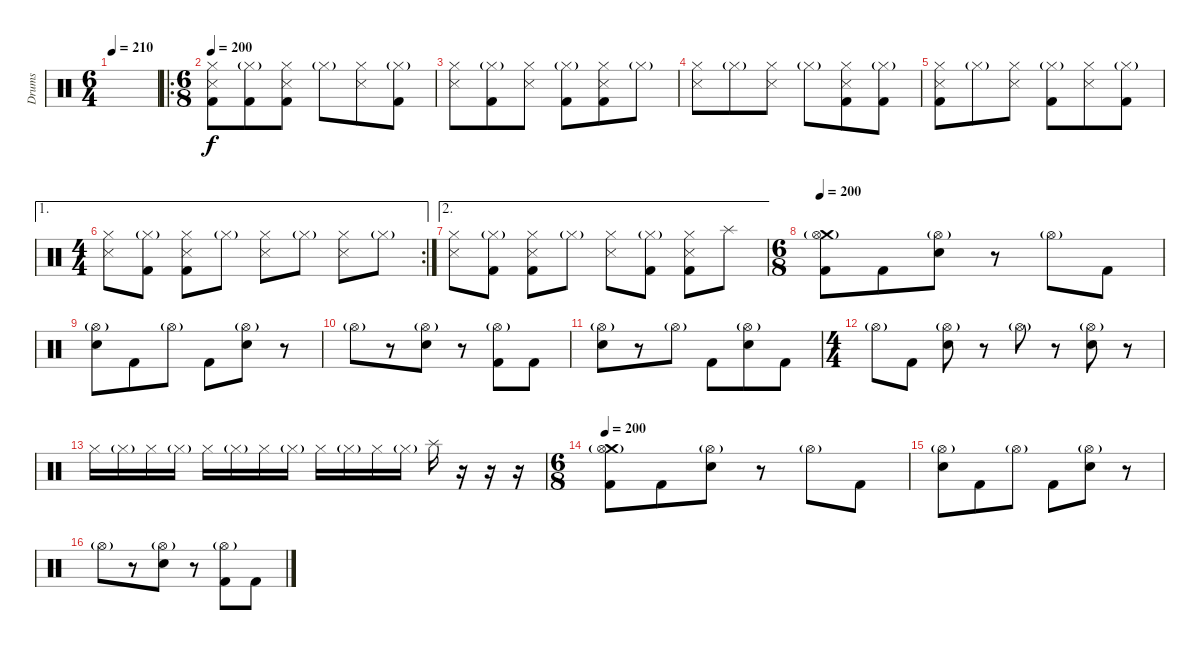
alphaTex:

\track ("Drums" "Drums") {instrument percussion}
\staff {score}
\articulation defaults
\ts (6 4)
\tempo 210
\clef neutral
\ks c
|
\ro
\ts (6 8)
\tempo 200
("Hi-Hat (closed)" "Snare (side stick) 3" "Kick (hit) 2").8 ("Hi-Hat (closed)"{g} "Kick (hit) 2").8 ("Hi-Hat (closed)" "Snare (side stick) 3" "Kick (hit) 2").8 "Hi-Hat (closed)"{g}.8 ("Hi-Hat (closed)" "Snare (side stick) 3").8 ("Hi-Hat (closed)"{g} "Kick (hit) 2").8 |
("Hi-Hat (closed)" "Snare (side stick) 3").8 ("Hi-Hat (closed)"{g} "Kick (hit) 2").8 ("Hi-Hat (closed)" "Snare (side stick) 3").8 ("Hi-Hat (closed)"{g} "Kick (hit) 2").8 ("Hi-Hat (closed)" "Snare (side stick) 3" "Kick (hit) 2").8 "Hi-Hat (closed)"{g}.8 |
("Hi-Hat (closed)" "Snare (side stick) 3").8 "Hi-Hat (closed)"{g}.8 ("Hi-Hat (closed)" "Snare (side stick) 3").8 "Hi-Hat (closed)"{g}.8 ("Hi-Hat (closed)" "Snare (side stick) 3" "Kick (hit) 2").8 ("Hi-Hat (closed)"{g} "Kick (hit) 2").8 |
("Hi-Hat (closed)" "Snare (side stick) 3" "Kick (hit) 2").8 "Hi-Hat (closed)"{g}.8 ("Hi-Hat (closed)" "Snare (side stick) 3").8 ("Hi-Hat (closed)"{g} "Kick (hit) 2").8 ("Hi-Hat (closed)" "Snare (side stick) 3").8 ("Hi-Hat (closed)"{g} "Kick (hit) 2").8 |
\ae 1
\rc 2
\ts (4 4)
("Hi-Hat (closed)" "Snare (side stick) 3").8 ("Hi-Hat (closed)"{g} "Kick (hit) 2").8 ("Hi-Hat (closed)" "Snare (side stick) 3" "Kick (hit) 2").8 "Hi-Hat (closed)"{g}.8 ("Hi-Hat (closed)" "Snare (side stick) 3").8 "Hi-Hat (closed)"{g}.8 ("Hi-Hat (closed)" "Snare (side stick) 3").8 "Hi-Hat (closed)"{g}.8 |
\ae 2
("Hi-Hat (closed)" "Snare (side stick) 3").8 ("Hi-Hat (closed)"{g} "Kick (hit) 2").8 ("Hi-Hat (closed)" "Snare (side stick) 3" "Kick (hit) 2").8 "Hi-Hat (closed)"{g}.8 ("Hi-Hat (closed)" "Snare (side stick) 3").8 ("Hi-Hat (closed)"{g} "Kick (hit) 2").8 ("Hi-Hat (closed)" "Snare (side stick) 3" "Kick (hit) 2").8 "Splash (hit)".8 |
\ts (6 8)
\tempo 200
("Crash medium (hit)"{g} "Hi-Hat (open)"{g} "Kick (hit) 2").8 "Kick (hit) 2".8 ("Hi-Hat (open)"{g} "Electric Snare (hit)").8 r.8 "Hi-Hat (open)"{g}.8 "Kick (hit) 2".8 |
("Hi-Hat (open)"{g} "Electric Snare (hit)").8 "Kick (hit) 2".8 "Hi-Hat (open)"{g}.8 "Kick (hit) 2".8 ("Hi-Hat (open)"{g} "Electric Snare (hit)").8 r.8 |
"Hi-Hat (open)"{g}.8 r.8 ("Hi-Hat (open)"{g} "Electric Snare (hit)").8 r.8 ("Hi-Hat (open)"{g} "Kick (hit) 2").8 "Kick (hit) 2".8 |
("Hi-Hat (open)"{g} "Electric Snare (hit)").8 r.8 "Hi-Hat (open)"{g}.8 "Kick (hit) 2".8 ("Hi-Hat (open)"{g} "Electric Snare (hit)").8 "Kick (hit) 2".8 |
\ts (4 4)
"Hi-Hat (open)"{g}.8 "Kick (hit) 2".8 ("Hi-Hat (open)"{g} "Electric Snare (hit)").8 r.8 "Hi-Hat (open)"{g}.8 r.8 ("Hi-Hat (open)"{g} "Electric Snare (hit)").8 r.8 |
"Hi-Hat (closed)".16 "Hi-Hat (closed)"{g}.16 "Hi-Hat (closed)".16 "Hi-Hat (closed)"{g}.16 "Hi-Hat (closed)".16 "Hi-Hat (closed)"{g}.16 "Hi-Hat (closed)".16 "Hi-Hat (closed)"{g}.16 "Hi-Hat (closed)".16 "Hi-Hat (closed)"{g}.16 "Hi-Hat (closed)".16 "Hi-Hat (closed)"{g}.16 "Splash (hit)".16 r.16 r.16 r.16 |
\ts (6 8)
\tempo 200
("Crash medium (hit)"{g} "Hi-Hat (open)"{g} "Kick (hit) 2").8 "Kick (hit) 2".8 ("Hi-Hat (open)"{g} "Electric Snare (hit)").8 r.8 "Hi-Hat (open)"{g}.8 "Kick (hit) 2".8 |
("Hi-Hat (open)"{g} "Electric Snare (hit)").8 "Kick (hit) 2".8 "Hi-Hat (open)"{g}.8 "Kick (hit) 2".8 ("Hi-Hat (open)"{g} "Electric Snare (hit)").8 r.8 |
"Hi-Hat (open)"{g}.8 r.8 ("Hi-Hat (open)"{g} "Electric Snare (hit)").8 r.8 ("Hi-Hat (open)"{g} "Kick (hit) 2").8 "Kick (hit) 2".8
